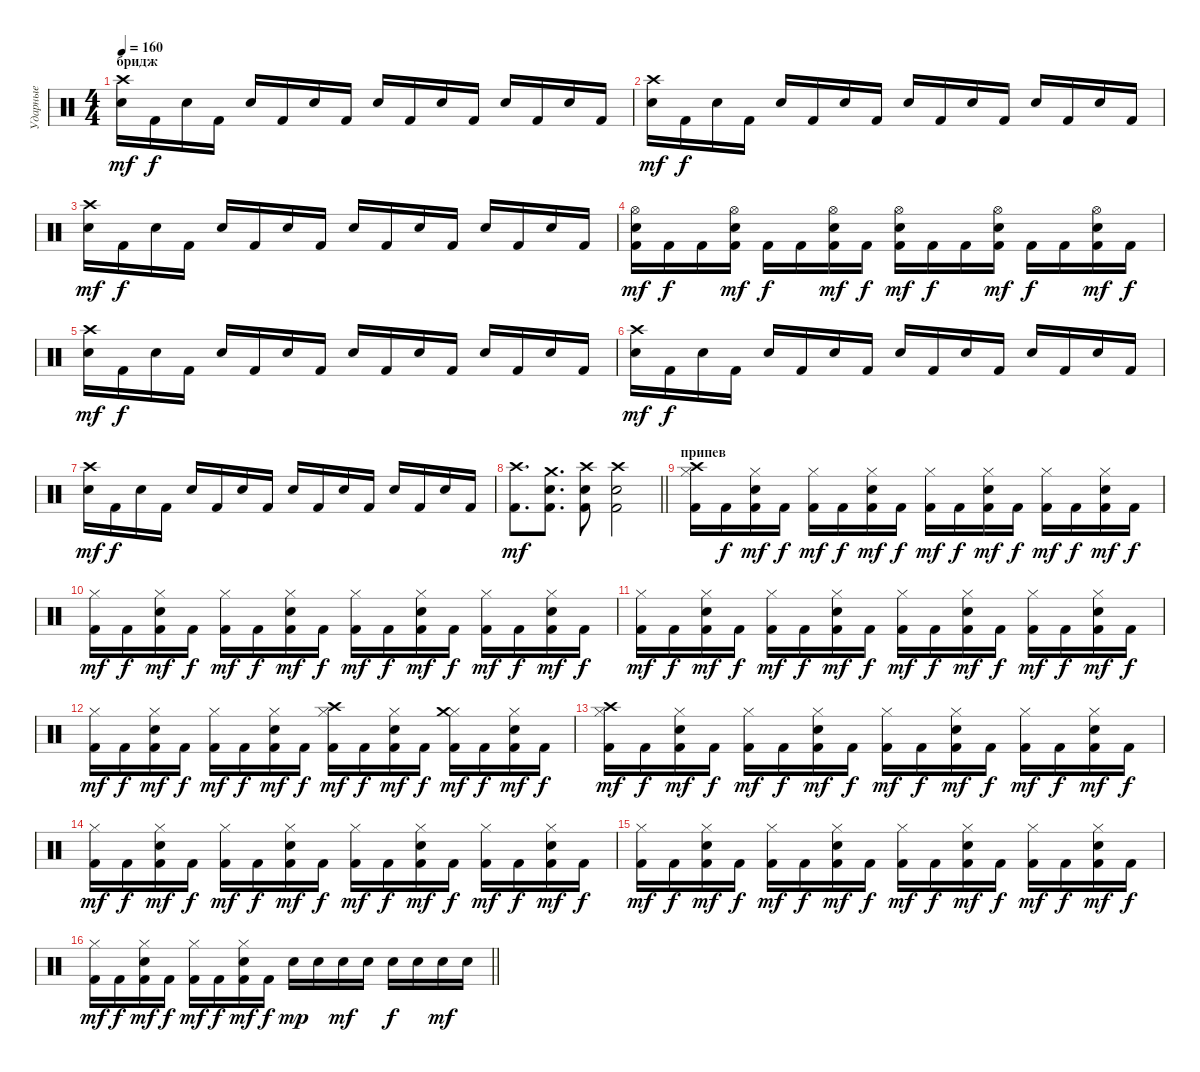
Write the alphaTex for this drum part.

\track ("Ударные" "Ударные") {instrument percussion}
\staff {score}
\articulation defaults
\ts (4 4)
\section ("" "бридж")
\tempo 160
\clef neutral
\ks c
("Snare (hit) 2" "Crash high (hit)").16{dy mf} "Kick (hit) 2".16{dy f} "Snare (hit) 2".16 "Kick (hit) 2".16 "Snare (hit) 2".16 "Kick (hit) 2".16 "Snare (hit) 2".16 "Kick (hit) 2".16 "Snare (hit) 2".16 "Kick (hit) 2".16 "Snare (hit) 2".16 "Kick (hit) 2".16 "Snare (hit) 2".16 "Kick (hit) 2".16 "Snare (hit) 2".16 "Kick (hit) 2".16 |
("Snare (hit) 2" "Crash high (hit)").16{dy mf} "Kick (hit) 2".16{dy f} "Snare (hit) 2".16 "Kick (hit) 2".16 "Snare (hit) 2".16 "Kick (hit) 2".16 "Snare (hit) 2".16 "Kick (hit) 2".16 "Snare (hit) 2".16 "Kick (hit) 2".16 "Snare (hit) 2".16 "Kick (hit) 2".16 "Snare (hit) 2".16 "Kick (hit) 2".16 "Snare (hit) 2".16 "Kick (hit) 2".16 |
("Snare (hit) 2" "Crash high (hit)").16{dy mf} "Kick (hit) 2".16{dy f} "Snare (hit) 2".16 "Kick (hit) 2".16 "Snare (hit) 2".16 "Kick (hit) 2".16 "Snare (hit) 2".16 "Kick (hit) 2".16 "Snare (hit) 2".16 "Kick (hit) 2".16 "Snare (hit) 2".16 "Kick (hit) 2".16 "Snare (hit) 2".16 "Kick (hit) 2".16 "Snare (hit) 2".16 "Kick (hit) 2".16 |
("Kick (hit) 2" "Snare (hit) 2" "Hi-Hat (open)").16{dy mf} "Kick (hit) 2".16{dy f} "Kick (hit) 2".16 ("Kick (hit) 2" "Snare (hit) 2" "Hi-Hat (open)").16{dy mf} "Kick (hit) 2".16{dy f} "Kick (hit) 2".16 ("Kick (hit) 2" "Snare (hit) 2" "Hi-Hat (open)").16{dy mf} "Kick (hit) 2".16{dy f} ("Kick (hit) 2" "Snare (hit) 2" "Hi-Hat (open)").16{dy mf} "Kick (hit) 2".16{dy f} "Kick (hit) 2".16 ("Kick (hit) 2" "Snare (hit) 2" "Hi-Hat (open)").16{dy mf} "Kick (hit) 2".16{dy f} "Kick (hit) 2".16 ("Kick (hit) 2" "Snare (hit) 2" "Hi-Hat (open)").16{dy mf} "Kick (hit) 2".16{dy f} |
("Snare (hit) 2" "Crash high (hit)").16{dy mf} "Kick (hit) 2".16{dy f} "Snare (hit) 2".16 "Kick (hit) 2".16 "Snare (hit) 2".16 "Kick (hit) 2".16 "Snare (hit) 2".16 "Kick (hit) 2".16 "Snare (hit) 2".16 "Kick (hit) 2".16 "Snare (hit) 2".16 "Kick (hit) 2".16 "Snare (hit) 2".16 "Kick (hit) 2".16 "Snare (hit) 2".16 "Kick (hit) 2".16 |
("Snare (hit) 2" "Crash high (hit)").16{dy mf} "Kick (hit) 2".16{dy f} "Snare (hit) 2".16 "Kick (hit) 2".16 "Snare (hit) 2".16 "Kick (hit) 2".16 "Snare (hit) 2".16 "Kick (hit) 2".16 "Snare (hit) 2".16 "Kick (hit) 2".16 "Snare (hit) 2".16 "Kick (hit) 2".16 "Snare (hit) 2".16 "Kick (hit) 2".16 "Snare (hit) 2".16 "Kick (hit) 2".16 |
("Snare (hit) 2" "Crash high (hit)").16{dy mf} "Kick (hit) 2".16{dy f} "Snare (hit) 2".16 "Kick (hit) 2".16 "Snare (hit) 2".16 "Kick (hit) 2".16 "Snare (hit) 2".16 "Kick (hit) 2".16 "Snare (hit) 2".16 "Kick (hit) 2".16 "Snare (hit) 2".16 "Kick (hit) 2".16 "Snare (hit) 2".16 "Kick (hit) 2".16 "Snare (hit) 2".16 "Kick (hit) 2".16 |
\barLineRight lightlight
("Kick (hit) 2" "Crash high (hit)").8{d dy mf} ("Kick (hit) 2" "Electric Snare (hit)" "Crash medium (hit)").8{d} ("Kick (hit) 2" "Electric Snare (hit)" "Crash high (hit)").8 ("Kick (hit) 2" "Electric Snare (hit)" "Crash high (hit)").2 |
\section ("" "припев")
("Kick (hit) 2" "Hi-Hat (closed)" "Crash high (hit)").16 "Kick (hit) 2".16{dy f} ("Kick (hit) 2" "Snare (hit) 2" "Hi-Hat (closed)").16{dy mf} "Kick (hit) 2".16{dy f} ("Kick (hit) 2" "Hi-Hat (closed)").16{dy mf} "Kick (hit) 2".16{dy f} ("Kick (hit) 2" "Snare (hit) 2" "Hi-Hat (closed)").16{dy mf} "Kick (hit) 2".16{dy f} ("Kick (hit) 2" "Hi-Hat (closed)").16{dy mf} "Kick (hit) 2".16{dy f} ("Kick (hit) 2" "Snare (hit) 2" "Hi-Hat (closed)").16{dy mf} "Kick (hit) 2".16{dy f} ("Kick (hit) 2" "Hi-Hat (closed)").16{dy mf} "Kick (hit) 2".16{dy f} ("Kick (hit) 2" "Snare (hit) 2" "Hi-Hat (closed)").16{dy mf} "Kick (hit) 2".16{dy f} |
("Kick (hit) 2" "Hi-Hat (closed)").16{dy mf} "Kick (hit) 2".16{dy f} ("Kick (hit) 2" "Snare (hit) 2" "Hi-Hat (closed)").16{dy mf} "Kick (hit) 2".16{dy f} ("Kick (hit) 2" "Hi-Hat (closed)").16{dy mf} "Kick (hit) 2".16{dy f} ("Kick (hit) 2" "Snare (hit) 2" "Hi-Hat (closed)").16{dy mf} "Kick (hit) 2".16{dy f} ("Kick (hit) 2" "Hi-Hat (closed)").16{dy mf} "Kick (hit) 2".16{dy f} ("Kick (hit) 2" "Snare (hit) 2" "Hi-Hat (closed)").16{dy mf} "Kick (hit) 2".16{dy f} ("Kick (hit) 2" "Hi-Hat (closed)").16{dy mf} "Kick (hit) 2".16{dy f} ("Kick (hit) 2" "Snare (hit) 2" "Hi-Hat (closed)").16{dy mf} "Kick (hit) 2".16{dy f} |
("Kick (hit) 2" "Hi-Hat (closed)").16{dy mf} "Kick (hit) 2".16{dy f} ("Kick (hit) 2" "Snare (hit) 2" "Hi-Hat (closed)").16{dy mf} "Kick (hit) 2".16{dy f} ("Kick (hit) 2" "Hi-Hat (closed)").16{dy mf} "Kick (hit) 2".16{dy f} ("Kick (hit) 2" "Snare (hit) 2" "Hi-Hat (closed)").16{dy mf} "Kick (hit) 2".16{dy f} ("Kick (hit) 2" "Hi-Hat (closed)").16{dy mf} "Kick (hit) 2".16{dy f} ("Kick (hit) 2" "Snare (hit) 2" "Hi-Hat (closed)").16{dy mf} "Kick (hit) 2".16{dy f} ("Kick (hit) 2" "Hi-Hat (closed)").16{dy mf} "Kick (hit) 2".16{dy f} ("Kick (hit) 2" "Snare (hit) 2" "Hi-Hat (closed)").16{dy mf} "Kick (hit) 2".16{dy f} |
("Kick (hit) 2" "Hi-Hat (closed)").16{dy mf} "Kick (hit) 2".16{dy f} ("Kick (hit) 2" "Snare (hit) 2" "Hi-Hat (closed)").16{dy mf} "Kick (hit) 2".16{dy f} ("Kick (hit) 2" "Hi-Hat (closed)").16{dy mf} "Kick (hit) 2".16{dy f} ("Kick (hit) 2" "Snare (hit) 2" "Hi-Hat (closed)").16{dy mf} "Kick (hit) 2".16{dy f} ("Kick (hit) 2" "Hi-Hat (closed)" "Crash high (hit)").16{dy mf} "Kick (hit) 2".16{dy f} ("Kick (hit) 2" "Snare (hit) 2" "Hi-Hat (closed)").16{dy mf} "Kick (hit) 2".16{dy f} ("Kick (hit) 2" "Hi-Hat (closed)" "Crash medium (hit)").16{dy mf} "Kick (hit) 2".16{dy f} ("Kick (hit) 2" "Snare (hit) 2" "Hi-Hat (closed)").16{dy mf} "Kick (hit) 2".16{dy f} |
("Kick (hit) 2" "Hi-Hat (closed)" "Crash high (hit)").16{dy mf} "Kick (hit) 2".16{dy f} ("Kick (hit) 2" "Snare (hit) 2" "Hi-Hat (closed)").16{dy mf} "Kick (hit) 2".16{dy f} ("Kick (hit) 2" "Hi-Hat (closed)").16{dy mf} "Kick (hit) 2".16{dy f} ("Kick (hit) 2" "Snare (hit) 2" "Hi-Hat (closed)").16{dy mf} "Kick (hit) 2".16{dy f} ("Kick (hit) 2" "Hi-Hat (closed)").16{dy mf} "Kick (hit) 2".16{dy f} ("Kick (hit) 2" "Snare (hit) 2" "Hi-Hat (closed)").16{dy mf} "Kick (hit) 2".16{dy f} ("Kick (hit) 2" "Hi-Hat (closed)").16{dy mf} "Kick (hit) 2".16{dy f} ("Kick (hit) 2" "Snare (hit) 2" "Hi-Hat (closed)").16{dy mf} "Kick (hit) 2".16{dy f} |
("Kick (hit) 2" "Hi-Hat (closed)").16{dy mf} "Kick (hit) 2".16{dy f} ("Kick (hit) 2" "Snare (hit) 2" "Hi-Hat (closed)").16{dy mf} "Kick (hit) 2".16{dy f} ("Kick (hit) 2" "Hi-Hat (closed)").16{dy mf} "Kick (hit) 2".16{dy f} ("Kick (hit) 2" "Snare (hit) 2" "Hi-Hat (closed)").16{dy mf} "Kick (hit) 2".16{dy f} ("Kick (hit) 2" "Hi-Hat (closed)").16{dy mf} "Kick (hit) 2".16{dy f} ("Kick (hit) 2" "Snare (hit) 2" "Hi-Hat (closed)").16{dy mf} "Kick (hit) 2".16{dy f} ("Kick (hit) 2" "Hi-Hat (closed)").16{dy mf} "Kick (hit) 2".16{dy f} ("Kick (hit) 2" "Snare (hit) 2" "Hi-Hat (closed)").16{dy mf} "Kick (hit) 2".16{dy f} |
("Kick (hit) 2" "Hi-Hat (closed)").16{dy mf} "Kick (hit) 2".16{dy f} ("Kick (hit) 2" "Snare (hit) 2" "Hi-Hat (closed)").16{dy mf} "Kick (hit) 2".16{dy f} ("Kick (hit) 2" "Hi-Hat (closed)").16{dy mf} "Kick (hit) 2".16{dy f} ("Kick (hit) 2" "Snare (hit) 2" "Hi-Hat (closed)").16{dy mf} "Kick (hit) 2".16{dy f} ("Kick (hit) 2" "Hi-Hat (closed)").16{dy mf} "Kick (hit) 2".16{dy f} ("Kick (hit) 2" "Snare (hit) 2" "Hi-Hat (closed)").16{dy mf} "Kick (hit) 2".16{dy f} ("Kick (hit) 2" "Hi-Hat (closed)").16{dy mf} "Kick (hit) 2".16{dy f} ("Kick (hit) 2" "Snare (hit) 2" "Hi-Hat (closed)").16{dy mf} "Kick (hit) 2".16{dy f} |
\barLineRight lightlight
("Kick (hit) 2" "Hi-Hat (closed)").16{dy mf} "Kick (hit) 2".16{dy f} ("Kick (hit) 2" "Snare (hit) 2" "Hi-Hat (closed)").16{dy mf} "Kick (hit) 2".16{dy f} ("Kick (hit) 2" "Hi-Hat (closed)").16{dy mf} "Kick (hit) 2".16{dy f} ("Kick (hit) 2" "Snare (hit) 2" "Hi-Hat (closed)").16{dy mf} "Kick (hit) 2".16{dy f} "Snare (hit) 2".16{dy mp} "Snare (hit) 2".16 "Snare (hit) 2".16{dy mf} "Snare (hit) 2".16 "Snare (hit) 2".16{dy f} "Snare (hit) 2".16 "Snare (hit) 2".16{dy mf} "Snare (hit) 2".16
